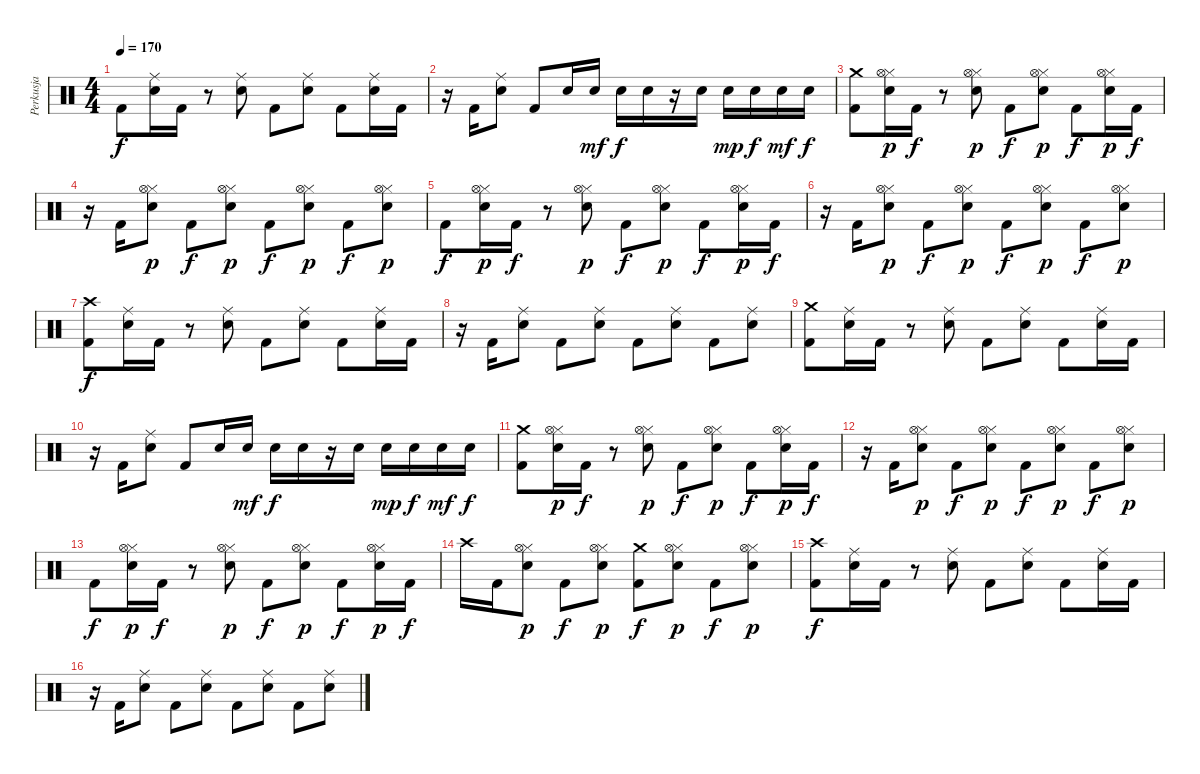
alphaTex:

\track ("Perkusja" "Perkusja") {instrument percussion}
\staff {score}
\articulation defaults
\ts (4 4)
\tempo 170
\clef neutral
\ks c "Kick (hit) 2".8{dy f}
("Electric Snare (hit)" "Ride (middle)").16 "Kick (hit) 2".16 r.8 ("Electric Snare (hit)" "Ride (middle)").8 "Kick (hit) 2".8 ("Electric Snare (hit)" "Ride (middle)").8 "Kick (hit) 2".8 ("Electric Snare (hit)" "Ride (middle)").16 "Kick (hit) 2".16 |
r.16 "Kick (hit) 2".16 ("Electric Snare (hit)" "Ride (middle)").8 "Kick (hit) 2".8 "Electric Snare (hit)".16 "Electric Snare (hit)".16{dy mf} "Electric Snare (hit)".16{dy f} "Electric Snare (hit)".16 r.16 "Electric Snare (hit)".16 "Electric Snare (hit)".16{dy mp} "Electric Snare (hit)".16{dy f} "Electric Snare (hit)".16{dy mf} "Electric Snare (hit)".16{dy f} |
("Kick (hit) 2" "Crash medium (hit)").8 ("Electric Snare (hit)" "Hi-Hat (closed)" "Hi-Hat (open)").16{dy p} "Kick (hit) 2".16{dy f} r.8 ("Electric Snare (hit)" "Hi-Hat (closed)" "Hi-Hat (open)").8{dy p} "Kick (hit) 2".8{dy f} ("Electric Snare (hit)" "Hi-Hat (closed)" "Hi-Hat (open)").8{dy p} "Kick (hit) 2".8{dy f} ("Electric Snare (hit)" "Hi-Hat (closed)" "Hi-Hat (open)").16{dy p} "Kick (hit) 2".16{dy f} |
r.16 "Kick (hit) 2".16 ("Electric Snare (hit)" "Hi-Hat (closed)" "Hi-Hat (open)").8{dy p} "Kick (hit) 2".8{dy f} ("Electric Snare (hit)" "Hi-Hat (closed)" "Hi-Hat (open)").8{dy p} "Kick (hit) 2".8{dy f} ("Electric Snare (hit)" "Hi-Hat (closed)" "Hi-Hat (open)").8{dy p} "Kick (hit) 2".8{dy f} ("Electric Snare (hit)" "Hi-Hat (closed)" "Hi-Hat (open)").8{dy p} |
"Kick (hit) 2".8{dy f} ("Electric Snare (hit)" "Hi-Hat (closed)" "Hi-Hat (open)").16{dy p} "Kick (hit) 2".16{dy f} r.8 ("Electric Snare (hit)" "Hi-Hat (closed)" "Hi-Hat (open)").8{dy p} "Kick (hit) 2".8{dy f} ("Electric Snare (hit)" "Hi-Hat (closed)" "Hi-Hat (open)").8{dy p} "Kick (hit) 2".8{dy f} ("Electric Snare (hit)" "Hi-Hat (closed)" "Hi-Hat (open)").16{dy p} "Kick (hit) 2".16{dy f} |
r.16 "Kick (hit) 2".16 ("Electric Snare (hit)" "Hi-Hat (closed)" "Hi-Hat (open)").8{dy p} "Kick (hit) 2".8{dy f} ("Electric Snare (hit)" "Hi-Hat (closed)" "Hi-Hat (open)").8{dy p} "Kick (hit) 2".8{dy f} ("Electric Snare (hit)" "Hi-Hat (closed)" "Hi-Hat (open)").8{dy p} "Kick (hit) 2".8{dy f} ("Electric Snare (hit)" "Hi-Hat (closed)" "Hi-Hat (open)").8{dy p} |
("Kick (hit) 2" "Crash high (hit)").8{dy f} ("Electric Snare (hit)" "Ride (middle)").16 "Kick (hit) 2".16 r.8 ("Electric Snare (hit)" "Ride (middle)").8 "Kick (hit) 2".8 ("Electric Snare (hit)" "Ride (middle)").8 "Kick (hit) 2".8 ("Electric Snare (hit)" "Ride (middle)").16 "Kick (hit) 2".16 |
r.16 "Kick (hit) 2".16 ("Electric Snare (hit)" "Ride (middle)").8 "Kick (hit) 2".8 ("Electric Snare (hit)" "Ride (middle)").8 "Kick (hit) 2".8 ("Electric Snare (hit)" "Ride (middle)").8 "Kick (hit) 2".8 ("Electric Snare (hit)" "Ride (middle)").8 |
("Kick (hit) 2" "Crash medium (hit)").8 ("Electric Snare (hit)" "Ride (middle)").16 "Kick (hit) 2".16 r.8 ("Electric Snare (hit)" "Ride (middle)").8 "Kick (hit) 2".8 ("Electric Snare (hit)" "Ride (middle)").8 "Kick (hit) 2".8 ("Electric Snare (hit)" "Ride (middle)").16 "Kick (hit) 2".16 |
r.16 "Kick (hit) 2".16 ("Electric Snare (hit)" "Ride (middle)").8 "Kick (hit) 2".8 "Electric Snare (hit)".16 "Electric Snare (hit)".16{dy mf} "Electric Snare (hit)".16{dy f} "Electric Snare (hit)".16 r.16 "Electric Snare (hit)".16 "Electric Snare (hit)".16{dy mp} "Electric Snare (hit)".16{dy f} "Electric Snare (hit)".16{dy mf} "Electric Snare (hit)".16{dy f} |
("Kick (hit) 2" "Crash medium (hit)").8 ("Electric Snare (hit)" "Hi-Hat (closed)" "Hi-Hat (open)").16{dy p} "Kick (hit) 2".16{dy f} r.8 ("Electric Snare (hit)" "Hi-Hat (closed)" "Hi-Hat (open)").8{dy p} "Kick (hit) 2".8{dy f} ("Electric Snare (hit)" "Hi-Hat (closed)" "Hi-Hat (open)").8{dy p} "Kick (hit) 2".8{dy f} ("Electric Snare (hit)" "Hi-Hat (closed)" "Hi-Hat (open)").16{dy p} "Kick (hit) 2".16{dy f} |
r.16 "Kick (hit) 2".16 ("Electric Snare (hit)" "Hi-Hat (closed)" "Hi-Hat (open)").8{dy p} "Kick (hit) 2".8{dy f} ("Electric Snare (hit)" "Hi-Hat (closed)" "Hi-Hat (open)").8{dy p} "Kick (hit) 2".8{dy f} ("Electric Snare (hit)" "Hi-Hat (closed)" "Hi-Hat (open)").8{dy p} "Kick (hit) 2".8{dy f} ("Electric Snare (hit)" "Hi-Hat (closed)" "Hi-Hat (open)").8{dy p} |
"Kick (hit) 2".8{dy f} ("Electric Snare (hit)" "Hi-Hat (closed)" "Hi-Hat (open)").16{dy p} "Kick (hit) 2".16{dy f} r.8 ("Electric Snare (hit)" "Hi-Hat (closed)" "Hi-Hat (open)").8{dy p} "Kick (hit) 2".8{dy f} ("Electric Snare (hit)" "Hi-Hat (closed)" "Hi-Hat (open)").8{dy p} "Kick (hit) 2".8{dy f} ("Electric Snare (hit)" "Hi-Hat (closed)" "Hi-Hat (open)").16{dy p} "Kick (hit) 2".16{dy f} |
"Crash high (hit)".16 "Kick (hit) 2".16 ("Electric Snare (hit)" "Hi-Hat (closed)" "Hi-Hat (open)").8{dy p} "Kick (hit) 2".8{dy f} ("Electric Snare (hit)" "Hi-Hat (closed)" "Hi-Hat (open)").8{dy p} ("Kick (hit) 2" "Crash medium (hit)").8{dy f} ("Electric Snare (hit)" "Hi-Hat (closed)" "Hi-Hat (open)").8{dy p} "Kick (hit) 2".8{dy f} ("Electric Snare (hit)" "Hi-Hat (closed)" "Hi-Hat (open)").8{dy p} |
("Kick (hit) 2" "Crash high (hit)").8{dy f} ("Electric Snare (hit)" "Ride (middle)").16 "Kick (hit) 2".16 r.8 ("Electric Snare (hit)" "Ride (middle)").8 "Kick (hit) 2".8 ("Electric Snare (hit)" "Ride (middle)").8 "Kick (hit) 2".8 ("Electric Snare (hit)" "Ride (middle)").16 "Kick (hit) 2".16 |
r.16 "Kick (hit) 2".16 ("Electric Snare (hit)" "Ride (middle)").8 "Kick (hit) 2".8 ("Electric Snare (hit)" "Ride (middle)").8 "Kick (hit) 2".8 ("Electric Snare (hit)" "Ride (middle)").8 "Kick (hit) 2".8 ("Electric Snare (hit)" "Ride (middle)").8
